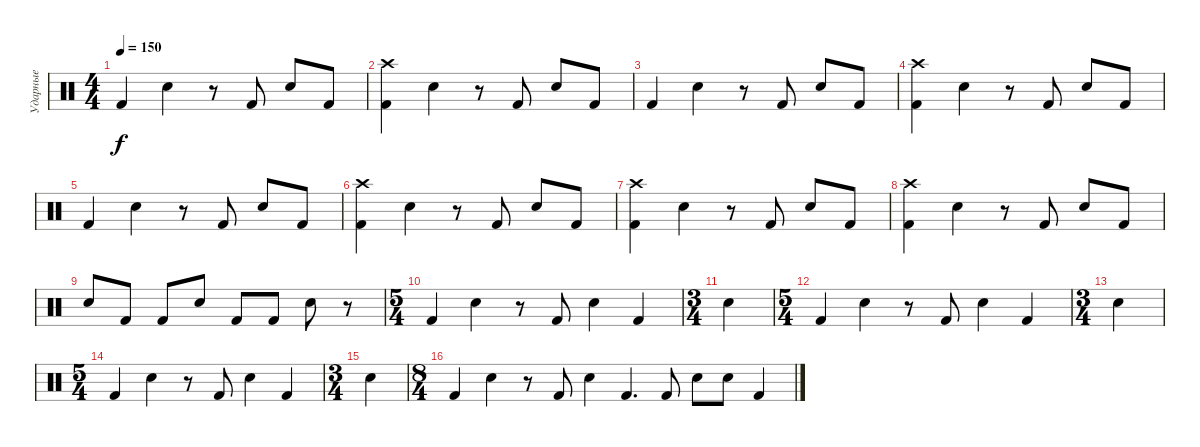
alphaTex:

\track ("Ударные" "Ударные") {instrument percussion}
\staff {score}
\articulation defaults
\ts (4 4)
\tempo 150
\clef neutral
\ks c "Kick (hit) 2".4{dy f} "Electric Snare (hit)".4
r.8 "Kick (hit) 2".8 "Electric Snare (hit)".8 "Kick (hit) 2".8 |
("Kick (hit) 2" "Crash high (hit)").4 "Electric Snare (hit)".4 r.8 "Kick (hit) 2".8 "Electric Snare (hit)".8 "Kick (hit) 2".8 |
"Kick (hit) 2".4 "Electric Snare (hit)".4 r.8 "Kick (hit) 2".8 "Electric Snare (hit)".8 "Kick (hit) 2".8 |
("Kick (hit) 2" "Crash high (hit)").4 "Electric Snare (hit)".4 r.8 "Kick (hit) 2".8 "Electric Snare (hit)".8 "Kick (hit) 2".8 |
"Kick (hit) 2".4 "Electric Snare (hit)".4 r.8 "Kick (hit) 2".8 "Electric Snare (hit)".8 "Kick (hit) 2".8 |
("Kick (hit) 2" "Crash high (hit)").4 "Electric Snare (hit)".4 r.8 "Kick (hit) 2".8 "Electric Snare (hit)".8 "Kick (hit) 2".8 |
("Kick (hit) 2" "Crash high (hit)").4 "Electric Snare (hit)".4 r.8 "Kick (hit) 2".8 "Electric Snare (hit)".8 "Kick (hit) 2".8 |
("Kick (hit) 2" "Crash high (hit)").4 "Electric Snare (hit)".4 r.8 "Kick (hit) 2".8 "Electric Snare (hit)".8 "Kick (hit) 2".8 |
"Electric Snare (hit)".8 "Kick (hit) 2".8 "Kick (hit) 2".8 "Electric Snare (hit)".8 "Kick (hit) 2".8 "Kick (hit) 2".8 "Electric Snare (hit)".8 r.8 |
\ts (5 4)
"Kick (hit) 2".4 "Electric Snare (hit)".4 r.8 "Kick (hit) 2".8 "Electric Snare (hit)".4 "Kick (hit) 2".4 |
\ts (3 4)
"Electric Snare (hit)".4 |
\ts (5 4)
"Kick (hit) 2".4 "Electric Snare (hit)".4 r.8 "Kick (hit) 2".8 "Electric Snare (hit)".4 "Kick (hit) 2".4 |
\ts (3 4)
"Electric Snare (hit)".4 |
\ts (5 4)
"Kick (hit) 2".4 "Electric Snare (hit)".4 r.8 "Kick (hit) 2".8 "Electric Snare (hit)".4 "Kick (hit) 2".4 |
\ts (3 4)
"Electric Snare (hit)".4 |
\ts (8 4)
"Kick (hit) 2".4 "Electric Snare (hit)".4 r.8 "Kick (hit) 2".8 "Electric Snare (hit)".4 "Kick (hit) 2".4{d} "Kick (hit) 2".8 "Electric Snare (hit)".8 "Electric Snare (hit)".8 "Kick (hit) 2".4
